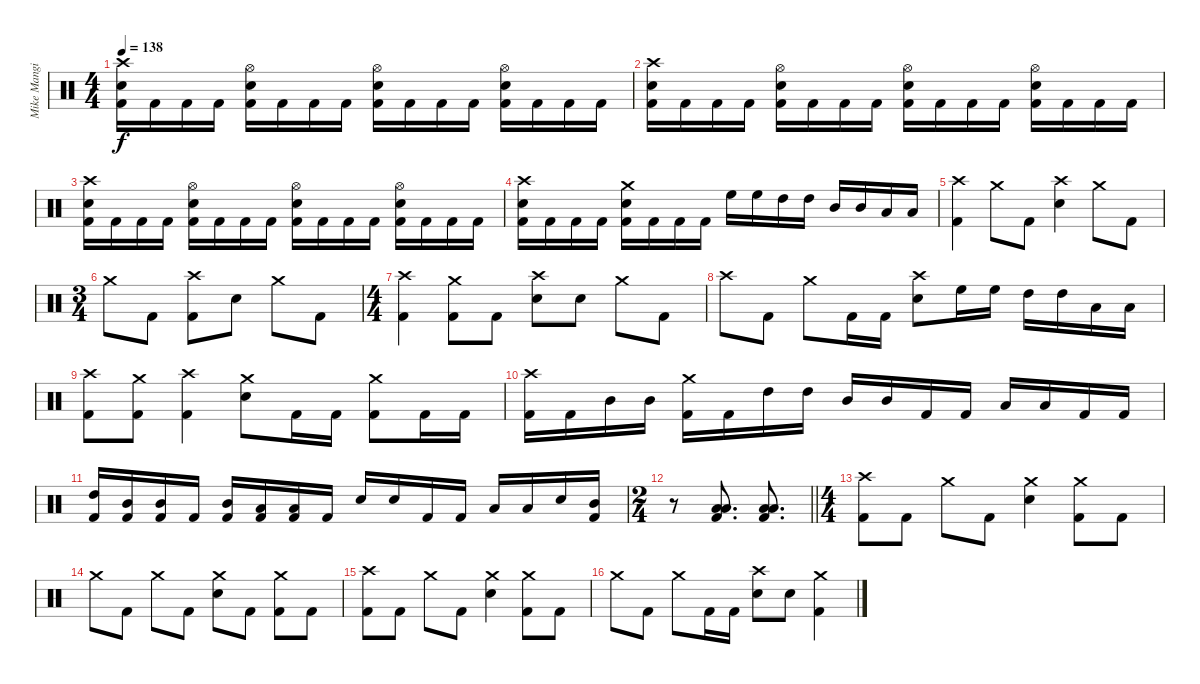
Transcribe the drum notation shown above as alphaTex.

\track ("Mike Mangini" "Mike Mangi") {instrument percussion}
\staff {score}
\articulation defaults
\ts (4 4)
\tempo 138
\clef neutral
\ks c
("Crash high (hit)" "Electric Snare (hit)" "Kick (hit) 2").16{dy f} "Kick (hit) 2".16 "Kick (hit) 2".16 "Kick (hit) 2".16 ("Hi-Hat (open)" "Electric Snare (hit)" "Kick (hit) 2").16 "Kick (hit) 2".16 "Kick (hit) 2".16 "Kick (hit) 2".16 ("Hi-Hat (open)" "Electric Snare (hit)" "Kick (hit) 2").16 "Kick (hit) 2".16 "Kick (hit) 2".16 "Kick (hit) 2".16 ("Hi-Hat (open)" "Electric Snare (hit)" "Kick (hit) 2").16 "Kick (hit) 2".16 "Kick (hit) 2".16 "Kick (hit) 2".16 |
("Crash high (hit)" "Electric Snare (hit)" "Kick (hit) 2").16 "Kick (hit) 2".16 "Kick (hit) 2".16 "Kick (hit) 2".16 ("Hi-Hat (open)" "Electric Snare (hit)" "Kick (hit) 2").16 "Kick (hit) 2".16 "Kick (hit) 2".16 "Kick (hit) 2".16 ("Hi-Hat (open)" "Electric Snare (hit)" "Kick (hit) 2").16 "Kick (hit) 2".16 "Kick (hit) 2".16 "Kick (hit) 2".16 ("Hi-Hat (open)" "Electric Snare (hit)" "Kick (hit) 2").16 "Kick (hit) 2".16 "Kick (hit) 2".16 "Kick (hit) 2".16 |
("Crash high (hit)" "Electric Snare (hit)" "Kick (hit) 2").16 "Kick (hit) 2".16 "Kick (hit) 2".16 "Kick (hit) 2".16 ("Hi-Hat (open)" "Electric Snare (hit)" "Kick (hit) 2").16 "Kick (hit) 2".16 "Kick (hit) 2".16 "Kick (hit) 2".16 ("Hi-Hat (open)" "Electric Snare (hit)" "Kick (hit) 2").16 "Kick (hit) 2".16 "Kick (hit) 2".16 "Kick (hit) 2".16 ("Hi-Hat (open)" "Electric Snare (hit)" "Kick (hit) 2").16 "Kick (hit) 2".16 "Kick (hit) 2".16 "Kick (hit) 2".16 |
("Crash high (hit)" "Electric Snare (hit)" "Kick (hit) 2").16 "Kick (hit) 2".16 "Kick (hit) 2".16 "Kick (hit) 2".16 ("Crash medium (hit)" "Electric Snare (hit)" "Kick (hit) 2").16 "Kick (hit) 2".16 "Kick (hit) 2".16 "Kick (hit) 2".16 "High Floor Tom (hit)".16 "High Floor Tom (hit)".16 "High Tom (hit)".16 "High Tom (hit)".16 "Mid Tom (hit)".16 "Mid Tom (hit)".16 "Low Tom (hit)".16 "Low Tom (hit)".16 |
("Crash high (hit)" "Kick (hit) 2").4 "Crash medium (hit)".8 "Kick (hit) 2".8 ("Crash high (hit)" "Electric Snare (hit)").4 "Crash medium (hit)".8 "Kick (hit) 2".8 |
\ts (3 4)
"Crash medium (hit)".8 "Kick (hit) 2".8 ("Crash high (hit)" "Kick (hit) 2").8 "Electric Snare (hit)".8 "Crash medium (hit)".8 "Kick (hit) 2".8 |
\ts (4 4)
("Crash high (hit)" "Kick (hit) 2").4 ("Crash medium (hit)" "Kick (hit) 2").8 "Kick (hit) 2".8 ("Crash high (hit)" "Electric Snare (hit)").8 "Electric Snare (hit)".8 "Crash medium (hit)".8 "Kick (hit) 2".8 |
"Crash high (hit)".8 "Kick (hit) 2".8 "Crash medium (hit)".8 "Kick (hit) 2".16 "Kick (hit) 2".16 ("Crash high (hit)" "Electric Snare (hit)").8 "High Floor Tom (hit)".16 "High Floor Tom (hit)".16 "High Tom (hit)".16 "High Tom (hit)".16 "Low Tom (hit)".16 "Low Tom (hit)".16 |
("Crash high (hit)" "Kick (hit) 2").8 ("Crash medium (hit)" "Kick (hit) 2").8 ("Crash high (hit)" "Kick (hit) 2").4 ("Crash medium (hit)" "Electric Snare (hit)").8 "Kick (hit) 2".16 "Kick (hit) 2".16 ("Crash medium (hit)" "Kick (hit) 2").8 "Kick (hit) 2".16 "Kick (hit) 2".16 |
("Crash high (hit)" "Kick (hit) 2").16 "Kick (hit) 2".16 "Mid Tom (hit)".16 "Mid Tom (hit)".16 ("Crash medium (hit)" "Kick (hit) 2").16 "Kick (hit) 2".16 "High Tom (hit)".16 "High Tom (hit)".16 "Mid Tom (hit)".16 "Mid Tom (hit)".16 "Kick (hit) 2".16 "Kick (hit) 2".16 "Low Tom (hit)".16 "Low Tom (hit)".16 "Kick (hit) 2".16 "Kick (hit) 2".16 |
("High Tom (hit)" "Kick (hit) 2").16 ("Mid Tom (hit)" "Kick (hit) 2").16 ("Mid Tom (hit)" "Kick (hit) 2").16 "Kick (hit) 2".16 ("Mid Tom (hit)" "Kick (hit) 2").16 ("Low Tom (hit)" "Kick (hit) 2").16 ("Low Tom (hit)" "Kick (hit) 2").16 "Kick (hit) 2".16 "Electric Snare (hit)".16 "Electric Snare (hit)".16 "Kick (hit) 2".16 "Kick (hit) 2".16 "Low Tom (hit)".16 "Low Tom (hit)".16 "Electric Snare (hit)".16 ("Mid Tom (hit)" "Kick (hit) 2").16 |
\ts (2 4)
\barLineRight lightlight
r.8 ("Low Tom (hit)" "Low Tom (hit)" "Kick (hit) 2").8{d} ("Low Tom (hit)" "Low Tom (hit)" "Kick (hit) 2").8{d} |
\ts (4 4)
("Crash high (hit)" "Kick (hit) 2").8 "Kick (hit) 2".8 "Crash medium (hit)".8 "Kick (hit) 2".8 ("Crash medium (hit)" "Electric Snare (hit)").4 ("Crash medium (hit)" "Kick (hit) 2").8 "Kick (hit) 2".8 |
"Crash medium (hit)".8 "Kick (hit) 2".8 "Crash medium (hit)".8 "Kick (hit) 2".8 ("Crash medium (hit)" "Electric Snare (hit)").8 "Kick (hit) 2".8 ("Crash medium (hit)" "Kick (hit) 2").8 "Kick (hit) 2".8 |
("Crash high (hit)" "Kick (hit) 2").8 "Kick (hit) 2".8 "Crash medium (hit)".8 "Kick (hit) 2".8 ("Crash medium (hit)" "Electric Snare (hit)").4 ("Crash medium (hit)" "Kick (hit) 2").8 "Kick (hit) 2".8 |
"Crash medium (hit)".8 "Kick (hit) 2".8 "Crash medium (hit)".8 "Kick (hit) 2".16 "Kick (hit) 2".16 ("Crash high (hit)" "Electric Snare (hit)").8 "Electric Snare (hit)".8 ("Crash medium (hit)" "Kick (hit) 2").4
